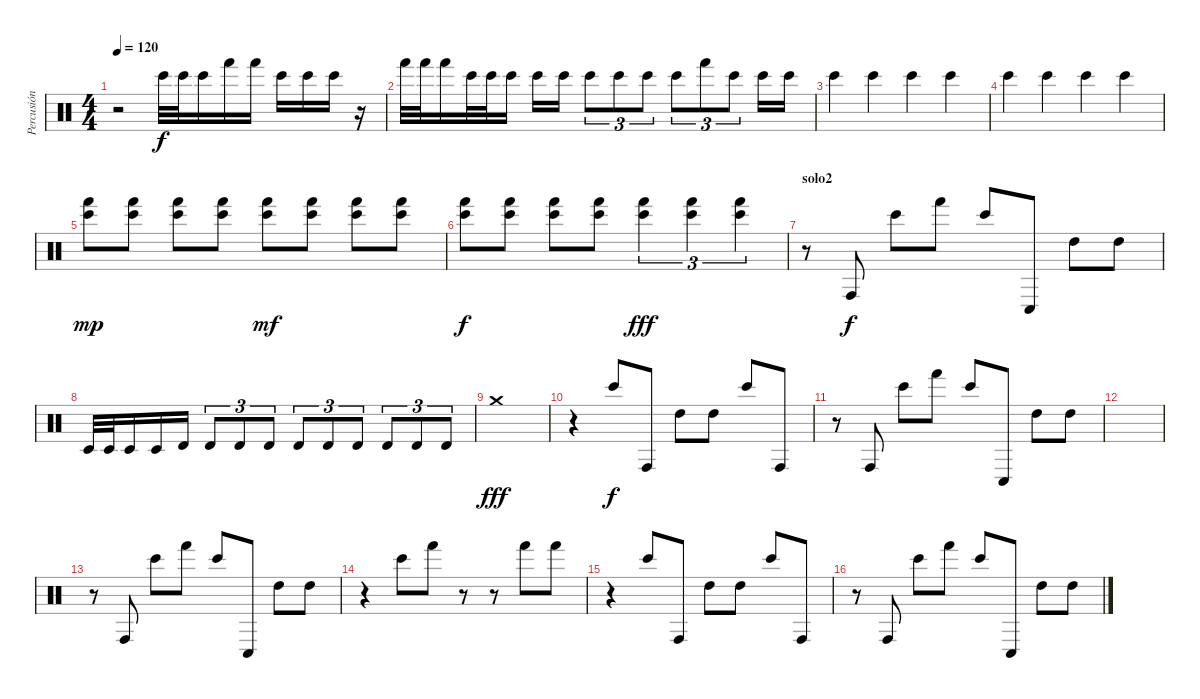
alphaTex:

\track ("Percusión" "Percusión") {instrument percussion}
\staff {score}
\articulation defaults
\ts (4 4)
\tempo 120
\clef neutral
\ks c
r.2{dy f} "Bongo High (hit)".32 "Bongo High (hit)".32 "Bongo High (hit)".16 "Hand (hit)".16 "Hand (hit)".16 "Bongo High (hit)".16 "Bongo High (hit)".16 "Bongo High (hit)".16 r.16 |
"Hand (hit)".32 "Hand (hit)".32 "Hand (hit)".16 "Bongo High (hit)".32 "Bongo High (hit)".32 "Bongo High (hit)".16 "Bongo High (hit)".16 "Bongo High (hit)".16 "Bongo High (hit)".8{tu (3 2)} "Bongo High (hit)".8{tu (3 2)} "Bongo High (hit)".8{tu (3 2)} "Bongo High (hit)".8{tu (3 2)} "Hand (hit)".8{tu (3 2)} "Bongo High (hit)".8{tu (3 2)} "Bongo High (hit)".16 "Bongo High (hit)".16 |
"Bongo High (hit)".4 "Bongo High (hit)".4 "Bongo High (hit)".4 "Bongo High (hit)".4 |
"Bongo High (hit)".4 "Bongo High (hit)".4 "Bongo High (hit)".4 "Bongo High (hit)".4 |
("Bongo High (hit)" "Hand (hit)").8{dy mp} ("Bongo High (hit)" "Hand (hit)").8 ("Bongo High (hit)" "Hand (hit)").8 ("Bongo High (hit)" "Hand (hit)").8 ("Bongo High (hit)" "Hand (hit)").8{dy mf} ("Bongo High (hit)" "Hand (hit)").8 ("Bongo High (hit)" "Hand (hit)").8 ("Bongo High (hit)" "Hand (hit)").8 |
("Bongo High (hit)" "Hand (hit)").8{dy f} ("Bongo High (hit)" "Hand (hit)").8 ("Bongo High (hit)" "Hand (hit)").8 ("Bongo High (hit)" "Hand (hit)").8 ("Bongo High (hit)" "Hand (hit)").4{tu (3 2) dy fff} ("Bongo High (hit)" "Hand (hit)").4{tu (3 2)} ("Bongo High (hit)" "Hand (hit)").4{tu (3 2)} |
\section ("" "solo2")
r.8 "Conga high (hit)".8{dy f} "Bongo High (hit)".8 "Hand (hit)".8 "Bongo High (hit)".8 "Conga low (hit)".8 "High Tom (hit)".8 "High Tom (hit)".8 |
"Timbale low (hit)".32 "Timbale low (hit)".32 "Timbale low (hit)".16 "Timbale low (hit)".16 "Timbale high (hit)".16 "Timbale high (hit)".8{tu (3 2)} "Timbale high (hit)".8{tu (3 2)} "Timbale high (hit)".8{tu (3 2)} "Timbale high (hit)".8{tu (3 2)} "Timbale high (hit)".8{tu (3 2)} "Timbale high (hit)".8{tu (3 2)} "Timbale high (hit)".8{tu (3 2)} "Timbale high (hit)".8{tu (3 2)} "Timbale high (hit)".8{tu (3 2)} |
"Crash medium (hit)".1{dy fff} |
r.4 "Bongo High (hit)".8{dy f} "Conga high (hit)".8 "High Tom (hit)".8 "High Tom (hit)".8 "Bongo High (hit)".8 "Conga high (hit)".8 |
r.8 "Conga high (hit)".8 "Bongo High (hit)".8 "Hand (hit)".8 "Bongo High (hit)".8 "Conga low (hit)".8 "High Tom (hit)".8 "High Tom (hit)".8 |
|
r.8 "Conga high (hit)".8 "Bongo High (hit)".8 "Hand (hit)".8 "Bongo High (hit)".8 "Conga low (hit)".8 "High Tom (hit)".8 "High Tom (hit)".8 |
r.4 "Bongo High (hit)".8 "Hand (hit)".8 r.8 r.8 "Hand (hit)".8 "Hand (hit)".8 |
r.4 "Bongo High (hit)".8 "Conga high (hit)".8 "High Tom (hit)".8 "High Tom (hit)".8 "Bongo High (hit)".8 "Conga high (hit)".8 |
r.8 "Conga high (hit)".8 "Bongo High (hit)".8 "Hand (hit)".8 "Bongo High (hit)".8 "Conga low (hit)".8 "High Tom (hit)".8 "High Tom (hit)".8
